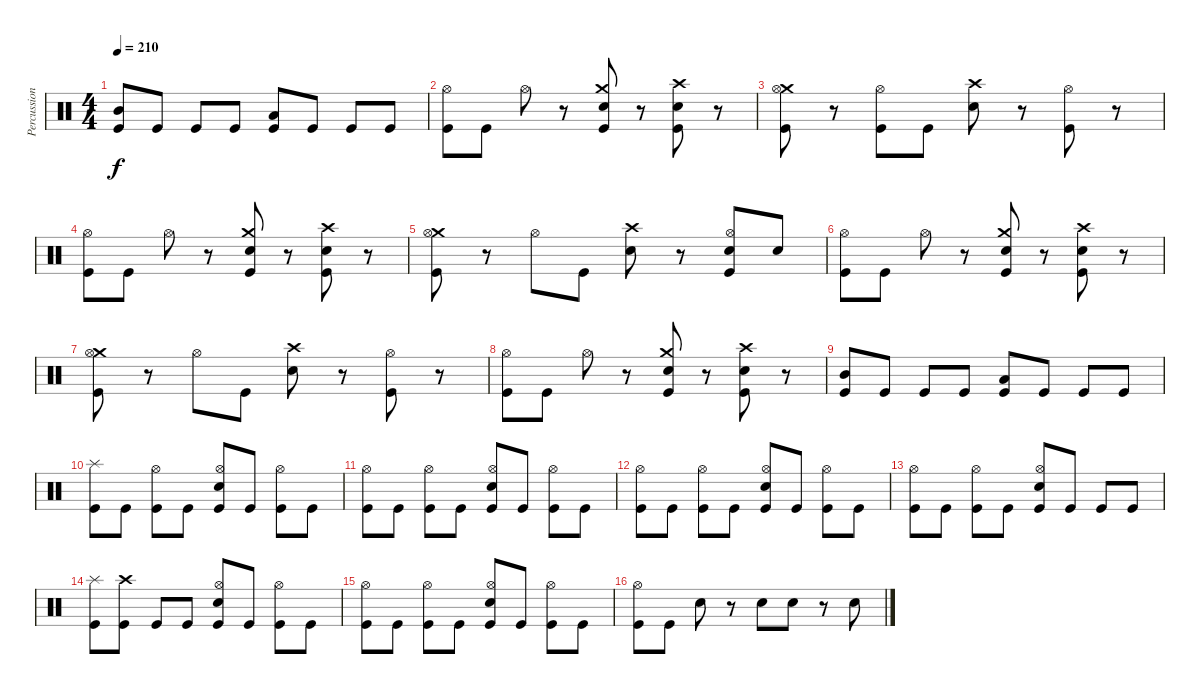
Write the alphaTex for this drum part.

\track ("Percussion" "Percussion") {instrument percussion}
\staff {score}
\articulation defaults
\ts (4 4)
\tempo 210
\clef neutral
\ks c
("Mid Tom (hit)" "Kick (hit)").8{dy f} "Kick (hit)".8 "Kick (hit)".8 "Kick (hit)".8 ("Low Tom (hit)" "Kick (hit)").8 "Kick (hit)".8 "Kick (hit)".8 "Kick (hit)".8 |
("Hi-Hat (open)" "Kick (hit)").8 "Kick (hit)".8 "Hi-Hat (open)".8 r.8 ("Crash medium (hit)" "Snare (hit) 2" "Kick (hit)").8 r.8 ("Crash high (hit)" "Snare (hit) 2" "Kick (hit)").8 r.8 |
("Crash medium (hit)" "Hi-Hat (open)" "Kick (hit)").8 r.8 ("Hi-Hat (open)" "Kick (hit)").8 "Kick (hit)".8 ("Crash high (hit)" "Snare (hit) 2").8 r.8 ("Hi-Hat (open)" "Kick (hit)").8 r.8 |
("Hi-Hat (open)" "Kick (hit)").8 "Kick (hit)".8 "Hi-Hat (open)".8 r.8 ("Crash medium (hit)" "Snare (hit) 2" "Kick (hit)").8 r.8 ("Crash high (hit)" "Snare (hit) 2" "Kick (hit)").8 r.8 |
("Crash medium (hit)" "Hi-Hat (open)" "Kick (hit)").8 r.8 "Hi-Hat (open)".8 "Kick (hit)".8 ("Crash high (hit)" "Snare (hit) 2").8 r.8 ("Snare (hit) 2" "Hi-Hat (open)" "Kick (hit)").8 "Snare (hit) 2".8 |
("Hi-Hat (open)" "Kick (hit)").8 "Kick (hit)".8 "Hi-Hat (open)".8 r.8 ("Crash medium (hit)" "Snare (hit) 2" "Kick (hit)").8 r.8 ("Crash high (hit)" "Snare (hit) 2" "Kick (hit)").8 r.8 |
("Crash medium (hit)" "Hi-Hat (open)" "Kick (hit)").8 r.8 "Hi-Hat (open)".8 "Kick (hit)".8 ("Crash high (hit)" "Snare (hit) 2").8 r.8 ("Hi-Hat (open)" "Kick (hit)").8 r.8 |
("Hi-Hat (open)" "Kick (hit)").8 "Kick (hit)".8 "Hi-Hat (open)".8 r.8 ("Crash medium (hit)" "Snare (hit) 2" "Kick (hit)").8 r.8 ("Crash high (hit)" "Snare (hit) 2" "Kick (hit)").8 r.8 |
("Mid Tom (hit)" "Kick (hit)").8 "Kick (hit)".8 "Kick (hit)".8 "Kick (hit)".8 ("Low Tom (hit)" "Kick (hit)").8 "Kick (hit)".8 "Kick (hit)".8 "Kick (hit)".8 |
("Splash (hit)" "Kick (hit)").8 "Kick (hit)".8 ("Hi-Hat (open)" "Kick (hit)").8 "Kick (hit)".8 ("Snare (hit) 2" "Hi-Hat (open)" "Kick (hit)").8 "Kick (hit)".8 ("Hi-Hat (open)" "Kick (hit)").8 "Kick (hit)".8 |
("Hi-Hat (open)" "Kick (hit)").8 "Kick (hit)".8 ("Hi-Hat (open)" "Kick (hit)").8 "Kick (hit)".8 ("Snare (hit) 2" "Hi-Hat (open)" "Kick (hit)").8 "Kick (hit)".8 ("Hi-Hat (open)" "Kick (hit)").8 "Kick (hit)".8 |
("Hi-Hat (open)" "Kick (hit)").8 "Kick (hit)".8 ("Hi-Hat (open)" "Kick (hit)").8 "Kick (hit)".8 ("Snare (hit) 2" "Hi-Hat (open)" "Kick (hit)").8 "Kick (hit)".8 ("Hi-Hat (open)" "Kick (hit)").8 "Kick (hit)".8 |
("Hi-Hat (open)" "Kick (hit)").8 "Kick (hit)".8 ("Hi-Hat (open)" "Kick (hit)").8 "Kick (hit)".8 ("Snare (hit) 2" "Hi-Hat (open)" "Kick (hit)").8 "Kick (hit)".8 "Kick (hit)".8 "Kick (hit)".8 |
("Splash (hit)" "Kick (hit)").8 ("Crash high (hit)" "Kick (hit)").8 "Kick (hit)".8 "Kick (hit)".8 ("Snare (hit) 2" "Hi-Hat (open)" "Kick (hit)").8 "Kick (hit)".8 ("Hi-Hat (open)" "Kick (hit)").8 "Kick (hit)".8 |
("Hi-Hat (open)" "Kick (hit)").8 "Kick (hit)".8 ("Hi-Hat (open)" "Kick (hit)").8 "Kick (hit)".8 ("Snare (hit) 2" "Hi-Hat (open)" "Kick (hit)").8 "Kick (hit)".8 ("Hi-Hat (open)" "Kick (hit)").8 "Kick (hit)".8 |
("Hi-Hat (open)" "Kick (hit)").8 "Kick (hit)".8 "Snare (hit) 2".8 r.8 "Snare (hit) 2".8 "Snare (hit) 2".8 r.8 "Snare (hit) 2".8
